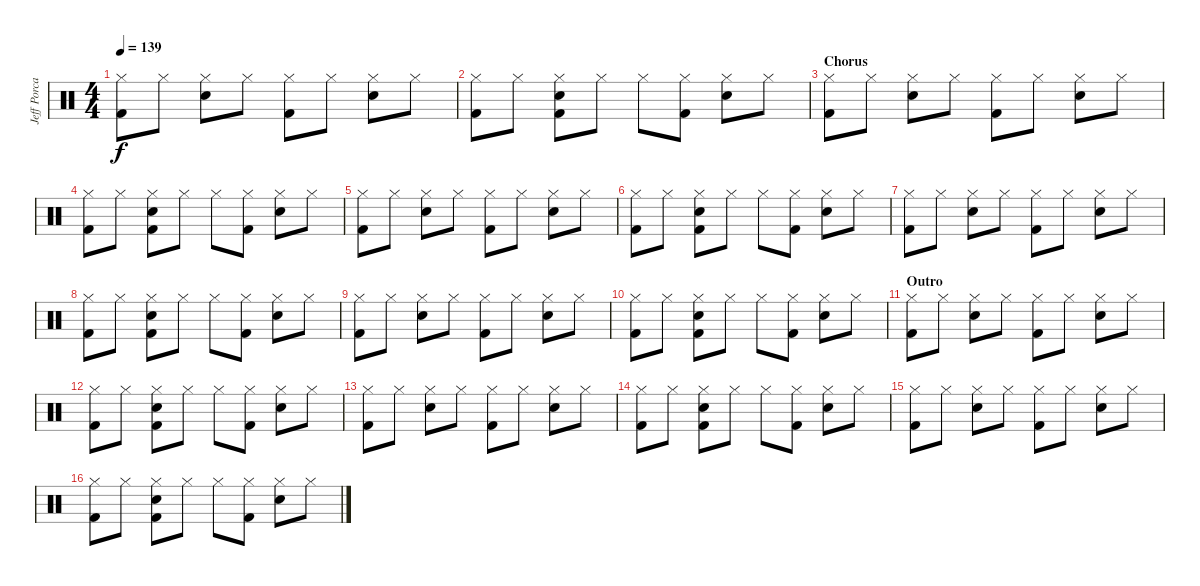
\track ("Jeff Porcaro (Percussion)" "Jeff Porca") {instrument percussion}
\staff {score}
\articulation defaults
\ts (4 4)
\tempo 139
\clef neutral
\ks c
("Hi-Hat (closed)" "Kick (hit) 2").8{dy f} "Hi-Hat (closed)".8 ("Hi-Hat (closed)" "Snare (hit) 2").8 "Hi-Hat (closed)".8 ("Hi-Hat (closed)" "Kick (hit) 2").8 "Hi-Hat (closed)".8 ("Hi-Hat (closed)" "Snare (hit) 2").8 "Hi-Hat (closed)".8 |
("Hi-Hat (closed)" "Kick (hit) 2").8 "Hi-Hat (closed)".8 ("Hi-Hat (closed)" "Snare (hit) 2" "Kick (hit) 2").8 "Hi-Hat (closed)".8 "Hi-Hat (closed)".8 ("Hi-Hat (closed)" "Kick (hit) 2").8 ("Hi-Hat (closed)" "Snare (hit) 2").8 "Hi-Hat (closed)".8 |
\section ("" "Chorus")
("Hi-Hat (closed)" "Kick (hit) 2").8 "Hi-Hat (closed)".8 ("Hi-Hat (closed)" "Snare (hit) 2").8 "Hi-Hat (closed)".8 ("Hi-Hat (closed)" "Kick (hit) 2").8 "Hi-Hat (closed)".8 ("Hi-Hat (closed)" "Snare (hit) 2").8 "Hi-Hat (closed)".8 |
("Hi-Hat (closed)" "Kick (hit) 2").8 "Hi-Hat (closed)".8 ("Hi-Hat (closed)" "Snare (hit) 2" "Kick (hit) 2").8 "Hi-Hat (closed)".8 "Hi-Hat (closed)".8 ("Hi-Hat (closed)" "Kick (hit) 2").8 ("Hi-Hat (closed)" "Snare (hit) 2").8 "Hi-Hat (closed)".8 |
("Hi-Hat (closed)" "Kick (hit) 2").8 "Hi-Hat (closed)".8 ("Hi-Hat (closed)" "Snare (hit) 2").8 "Hi-Hat (closed)".8 ("Hi-Hat (closed)" "Kick (hit) 2").8 "Hi-Hat (closed)".8 ("Hi-Hat (closed)" "Snare (hit) 2").8 "Hi-Hat (closed)".8 |
("Hi-Hat (closed)" "Kick (hit) 2").8 "Hi-Hat (closed)".8 ("Hi-Hat (closed)" "Snare (hit) 2" "Kick (hit) 2").8 "Hi-Hat (closed)".8 "Hi-Hat (closed)".8 ("Hi-Hat (closed)" "Kick (hit) 2").8 ("Hi-Hat (closed)" "Snare (hit) 2").8 "Hi-Hat (closed)".8 |
("Hi-Hat (closed)" "Kick (hit) 2").8 "Hi-Hat (closed)".8 ("Hi-Hat (closed)" "Snare (hit) 2").8 "Hi-Hat (closed)".8 ("Hi-Hat (closed)" "Kick (hit) 2").8 "Hi-Hat (closed)".8 ("Hi-Hat (closed)" "Snare (hit) 2").8 "Hi-Hat (closed)".8 |
("Hi-Hat (closed)" "Kick (hit) 2").8 "Hi-Hat (closed)".8 ("Hi-Hat (closed)" "Snare (hit) 2" "Kick (hit) 2").8 "Hi-Hat (closed)".8 "Hi-Hat (closed)".8 ("Hi-Hat (closed)" "Kick (hit) 2").8 ("Hi-Hat (closed)" "Snare (hit) 2").8 "Hi-Hat (closed)".8 |
("Hi-Hat (closed)" "Kick (hit) 2").8 "Hi-Hat (closed)".8 ("Hi-Hat (closed)" "Snare (hit) 2").8 "Hi-Hat (closed)".8 ("Hi-Hat (closed)" "Kick (hit) 2").8 "Hi-Hat (closed)".8 ("Hi-Hat (closed)" "Snare (hit) 2").8 "Hi-Hat (closed)".8 |
("Hi-Hat (closed)" "Kick (hit) 2").8 "Hi-Hat (closed)".8 ("Hi-Hat (closed)" "Snare (hit) 2" "Kick (hit) 2").8 "Hi-Hat (closed)".8 "Hi-Hat (closed)".8 ("Hi-Hat (closed)" "Kick (hit) 2").8 ("Hi-Hat (closed)" "Snare (hit) 2").8 "Hi-Hat (closed)".8 |
\section ("" "Outro")
("Hi-Hat (closed)" "Kick (hit) 2").8 "Hi-Hat (closed)".8 ("Hi-Hat (closed)" "Snare (hit) 2").8 "Hi-Hat (closed)".8 ("Hi-Hat (closed)" "Kick (hit) 2").8 "Hi-Hat (closed)".8 ("Hi-Hat (closed)" "Snare (hit) 2").8 "Hi-Hat (closed)".8 |
("Hi-Hat (closed)" "Kick (hit) 2").8 "Hi-Hat (closed)".8 ("Hi-Hat (closed)" "Snare (hit) 2" "Kick (hit) 2").8 "Hi-Hat (closed)".8 "Hi-Hat (closed)".8 ("Hi-Hat (closed)" "Kick (hit) 2").8 ("Hi-Hat (closed)" "Snare (hit) 2").8 "Hi-Hat (closed)".8 |
("Hi-Hat (closed)" "Kick (hit) 2").8 "Hi-Hat (closed)".8 ("Hi-Hat (closed)" "Snare (hit) 2").8 "Hi-Hat (closed)".8 ("Hi-Hat (closed)" "Kick (hit) 2").8 "Hi-Hat (closed)".8 ("Hi-Hat (closed)" "Snare (hit) 2").8 "Hi-Hat (closed)".8 |
("Hi-Hat (closed)" "Kick (hit) 2").8 "Hi-Hat (closed)".8 ("Hi-Hat (closed)" "Snare (hit) 2" "Kick (hit) 2").8 "Hi-Hat (closed)".8 "Hi-Hat (closed)".8 ("Hi-Hat (closed)" "Kick (hit) 2").8 ("Hi-Hat (closed)" "Snare (hit) 2").8 "Hi-Hat (closed)".8 |
("Hi-Hat (closed)" "Kick (hit) 2").8 "Hi-Hat (closed)".8 ("Hi-Hat (closed)" "Snare (hit) 2").8 "Hi-Hat (closed)".8 ("Hi-Hat (closed)" "Kick (hit) 2").8 "Hi-Hat (closed)".8 ("Hi-Hat (closed)" "Snare (hit) 2").8 "Hi-Hat (closed)".8 |
("Hi-Hat (closed)" "Kick (hit) 2").8 "Hi-Hat (closed)".8 ("Hi-Hat (closed)" "Snare (hit) 2" "Kick (hit) 2").8 "Hi-Hat (closed)".8 "Hi-Hat (closed)".8 ("Hi-Hat (closed)" "Kick (hit) 2").8 ("Hi-Hat (closed)" "Snare (hit) 2").8 "Hi-Hat (closed)".8
